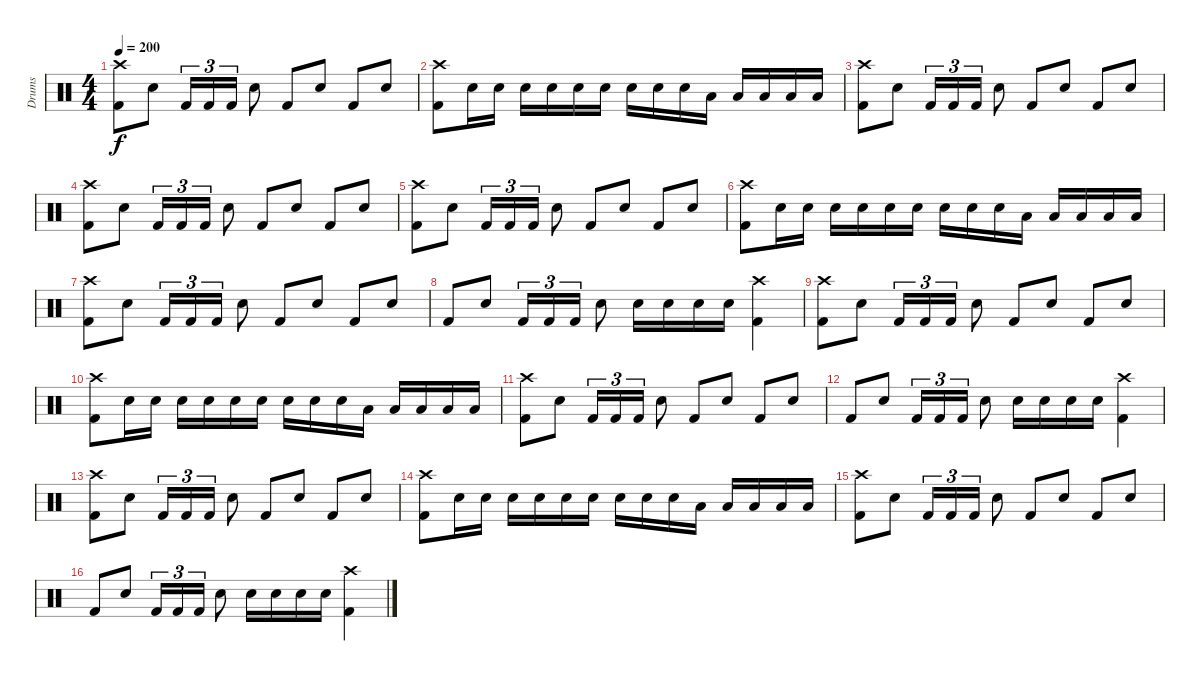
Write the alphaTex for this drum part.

\track ("Drums" "Drums") {instrument percussion}
\staff {score}
\articulation defaults
\ts (4 4)
\tempo 200
\clef neutral
\ks c
("Crash high (hit)" "Kick (hit) 2").8{dy f} "Electric Snare (hit)".8 "Kick (hit) 2".16{tu (3 2)} "Kick (hit) 2".16{tu (3 2)} "Kick (hit) 2".16{tu (3 2)} "Electric Snare (hit)".8 "Kick (hit) 2".8 "Electric Snare (hit)".8 "Kick (hit) 2".8 "Electric Snare (hit)".8 |
("Crash high (hit)" "Kick (hit) 2").8 "Electric Snare (hit)".16 "Electric Snare (hit)".16 "Electric Snare (hit)".16 "Electric Snare (hit)".16 "Electric Snare (hit)".16 "Electric Snare (hit)".16 "Electric Snare (hit)".16 "Electric Snare (hit)".16 "Electric Snare (hit)".16 "Low Tom (hit)".16 "Low Tom (hit)".16 "Low Tom (hit)".16 "Low Tom (hit)".16 "Low Tom (hit)".16 |
("Crash high (hit)" "Kick (hit) 2").8 "Electric Snare (hit)".8 "Kick (hit) 2".16{tu (3 2)} "Kick (hit) 2".16{tu (3 2)} "Kick (hit) 2".16{tu (3 2)} "Electric Snare (hit)".8 "Kick (hit) 2".8 "Electric Snare (hit)".8 "Kick (hit) 2".8 "Electric Snare (hit)".8 |
("Crash high (hit)" "Kick (hit) 2").8 "Electric Snare (hit)".8 "Kick (hit) 2".16{tu (3 2)} "Kick (hit) 2".16{tu (3 2)} "Kick (hit) 2".16{tu (3 2)} "Electric Snare (hit)".8 "Kick (hit) 2".8 "Electric Snare (hit)".8 "Kick (hit) 2".8 "Electric Snare (hit)".8 |
("Crash high (hit)" "Kick (hit) 2").8 "Electric Snare (hit)".8 "Kick (hit) 2".16{tu (3 2)} "Kick (hit) 2".16{tu (3 2)} "Kick (hit) 2".16{tu (3 2)} "Electric Snare (hit)".8 "Kick (hit) 2".8 "Electric Snare (hit)".8 "Kick (hit) 2".8 "Electric Snare (hit)".8 |
("Crash high (hit)" "Kick (hit) 2").8 "Electric Snare (hit)".16 "Electric Snare (hit)".16 "Electric Snare (hit)".16 "Electric Snare (hit)".16 "Electric Snare (hit)".16 "Electric Snare (hit)".16 "Electric Snare (hit)".16 "Electric Snare (hit)".16 "Electric Snare (hit)".16 "Low Tom (hit)".16 "Low Tom (hit)".16 "Low Tom (hit)".16 "Low Tom (hit)".16 "Low Tom (hit)".16 |
("Crash high (hit)" "Kick (hit) 2").8 "Electric Snare (hit)".8 "Kick (hit) 2".16{tu (3 2)} "Kick (hit) 2".16{tu (3 2)} "Kick (hit) 2".16{tu (3 2)} "Electric Snare (hit)".8 "Kick (hit) 2".8 "Electric Snare (hit)".8 "Kick (hit) 2".8 "Electric Snare (hit)".8 |
"Kick (hit) 2".8 "Electric Snare (hit)".8 "Kick (hit) 2".16{tu (3 2)} "Kick (hit) 2".16{tu (3 2)} "Kick (hit) 2".16{tu (3 2)} "Electric Snare (hit)".8 "Electric Snare (hit)".16 "Electric Snare (hit)".16 "Electric Snare (hit)".16 "Electric Snare (hit)".16 ("Crash high (hit)" "Kick (hit) 2").4 |
("Crash high (hit)" "Kick (hit) 2").8 "Electric Snare (hit)".8 "Kick (hit) 2".16{tu (3 2)} "Kick (hit) 2".16{tu (3 2)} "Kick (hit) 2".16{tu (3 2)} "Electric Snare (hit)".8 "Kick (hit) 2".8 "Electric Snare (hit)".8 "Kick (hit) 2".8 "Electric Snare (hit)".8 |
("Crash high (hit)" "Kick (hit) 2").8 "Electric Snare (hit)".16 "Electric Snare (hit)".16 "Electric Snare (hit)".16 "Electric Snare (hit)".16 "Electric Snare (hit)".16 "Electric Snare (hit)".16 "Electric Snare (hit)".16 "Electric Snare (hit)".16 "Electric Snare (hit)".16 "Low Tom (hit)".16 "Low Tom (hit)".16 "Low Tom (hit)".16 "Low Tom (hit)".16 "Low Tom (hit)".16 |
("Crash high (hit)" "Kick (hit) 2").8 "Electric Snare (hit)".8 "Kick (hit) 2".16{tu (3 2)} "Kick (hit) 2".16{tu (3 2)} "Kick (hit) 2".16{tu (3 2)} "Electric Snare (hit)".8 "Kick (hit) 2".8 "Electric Snare (hit)".8 "Kick (hit) 2".8 "Electric Snare (hit)".8 |
"Kick (hit) 2".8 "Electric Snare (hit)".8 "Kick (hit) 2".16{tu (3 2)} "Kick (hit) 2".16{tu (3 2)} "Kick (hit) 2".16{tu (3 2)} "Electric Snare (hit)".8 "Electric Snare (hit)".16 "Electric Snare (hit)".16 "Electric Snare (hit)".16 "Electric Snare (hit)".16 ("Crash high (hit)" "Kick (hit) 2").4 |
("Crash high (hit)" "Kick (hit) 2").8 "Electric Snare (hit)".8 "Kick (hit) 2".16{tu (3 2)} "Kick (hit) 2".16{tu (3 2)} "Kick (hit) 2".16{tu (3 2)} "Electric Snare (hit)".8 "Kick (hit) 2".8 "Electric Snare (hit)".8 "Kick (hit) 2".8 "Electric Snare (hit)".8 |
("Crash high (hit)" "Kick (hit) 2").8 "Electric Snare (hit)".16 "Electric Snare (hit)".16 "Electric Snare (hit)".16 "Electric Snare (hit)".16 "Electric Snare (hit)".16 "Electric Snare (hit)".16 "Electric Snare (hit)".16 "Electric Snare (hit)".16 "Electric Snare (hit)".16 "Low Tom (hit)".16 "Low Tom (hit)".16 "Low Tom (hit)".16 "Low Tom (hit)".16 "Low Tom (hit)".16 |
("Crash high (hit)" "Kick (hit) 2").8 "Electric Snare (hit)".8 "Kick (hit) 2".16{tu (3 2)} "Kick (hit) 2".16{tu (3 2)} "Kick (hit) 2".16{tu (3 2)} "Electric Snare (hit)".8 "Kick (hit) 2".8 "Electric Snare (hit)".8 "Kick (hit) 2".8 "Electric Snare (hit)".8 |
"Kick (hit) 2".8 "Electric Snare (hit)".8 "Kick (hit) 2".16{tu (3 2)} "Kick (hit) 2".16{tu (3 2)} "Kick (hit) 2".16{tu (3 2)} "Electric Snare (hit)".8 "Electric Snare (hit)".16 "Electric Snare (hit)".16 "Electric Snare (hit)".16 "Electric Snare (hit)".16 ("Crash high (hit)" "Kick (hit) 2").4
